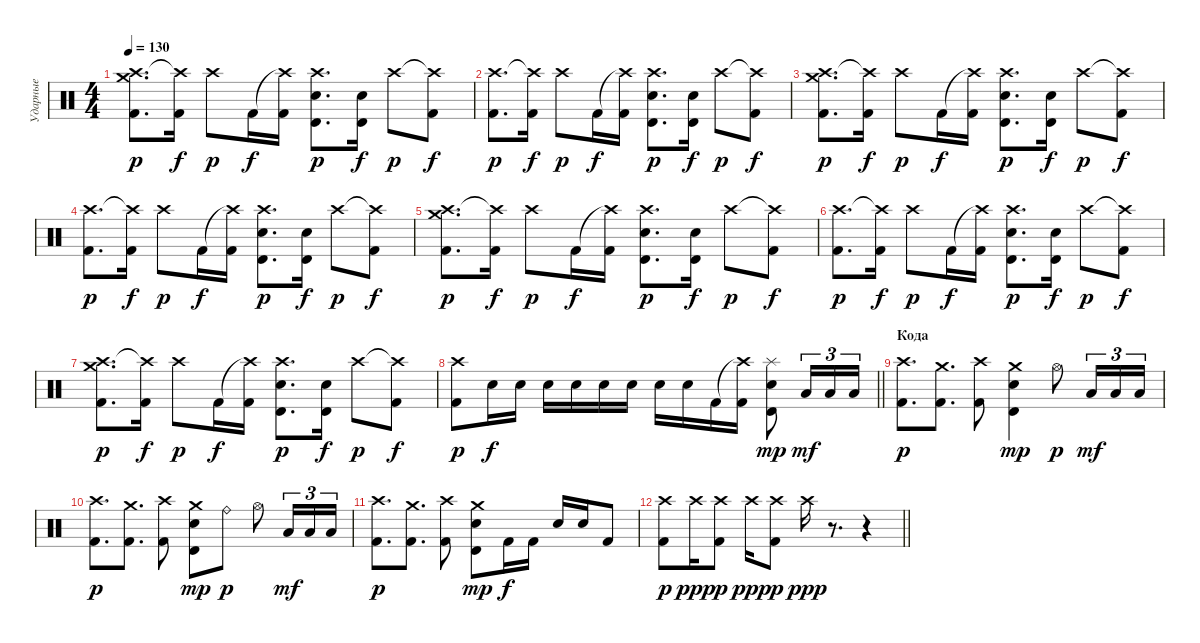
\track ("Ударные" "Ударные") {instrument percussion}
\staff {score}
\articulation defaults
\ts (4 4)
\tempo 130
\clef neutral
\ks c
("Crash high (hit)" "Crash medium (hit)" "Kick (hit) 2").8{d dy p} ("Crash high (hit)"{t} "Kick (hit) 2").16{dy f} "Crash high (hit)".8{dy p} "Kick (hit) 2".16{dy f} ("Crash high (hit)"{t} "Kick (hit) 2").16 ("Crash high (hit)" "Snare (hit) 2" "Timbale high (hit)").8{d dy p} ("Snare (hit) 2" "Timbale high (hit)").16{dy f} "Crash high (hit)".8{dy p} ("Crash high (hit)"{t} "Kick (hit) 2").8{dy f} |
("Crash high (hit)" "Kick (hit) 2").8{d dy p} ("Crash high (hit)"{t} "Kick (hit) 2").16{dy f} "Crash high (hit)".8{dy p} "Kick (hit) 2".16{dy f} ("Crash high (hit)"{t} "Kick (hit) 2").16 ("Crash high (hit)" "Snare (hit) 2" "Timbale high (hit)").8{d dy p} ("Snare (hit) 2" "Timbale high (hit)").16{dy f} "Crash high (hit)".8{dy p} ("Crash high (hit)"{t} "Kick (hit) 2").8{dy f} |
("Crash high (hit)" "Crash medium (hit)" "Kick (hit) 2").8{d dy p} ("Crash high (hit)"{t} "Kick (hit) 2").16{dy f} "Crash high (hit)".8{dy p} "Kick (hit) 2".16{dy f} ("Crash high (hit)"{t} "Kick (hit) 2").16 ("Crash high (hit)" "Snare (hit) 2" "Timbale high (hit)").8{d dy p} ("Snare (hit) 2" "Timbale high (hit)").16{dy f} "Crash high (hit)".8{dy p} ("Crash high (hit)"{t} "Kick (hit) 2").8{dy f} |
("Crash high (hit)" "Kick (hit) 2").8{d dy p} ("Crash high (hit)"{t} "Kick (hit) 2").16{dy f} "Crash high (hit)".8{dy p} "Kick (hit) 2".16{dy f} ("Crash high (hit)"{t} "Kick (hit) 2").16 ("Crash high (hit)" "Snare (hit) 2" "Timbale high (hit)").8{d dy p} ("Snare (hit) 2" "Timbale high (hit)").16{dy f} "Crash high (hit)".8{dy p} ("Crash high (hit)"{t} "Kick (hit) 2").8{dy f} |
("Crash high (hit)" "Crash medium (hit)" "Kick (hit) 2").8{d dy p} ("Crash high (hit)"{t} "Kick (hit) 2").16{dy f} "Crash high (hit)".8{dy p} "Kick (hit) 2".16{dy f} ("Crash high (hit)"{t} "Kick (hit) 2").16 ("Crash high (hit)" "Snare (hit) 2" "Timbale high (hit)").8{d dy p} ("Snare (hit) 2" "Timbale high (hit)").16{dy f} "Crash high (hit)".8{dy p} ("Crash high (hit)"{t} "Kick (hit) 2").8{dy f} |
("Crash high (hit)" "Kick (hit) 2").8{d dy p} ("Crash high (hit)"{t} "Kick (hit) 2").16{dy f} "Crash high (hit)".8{dy p} "Kick (hit) 2".16{dy f} ("Crash high (hit)"{t} "Kick (hit) 2").16 ("Crash high (hit)" "Snare (hit) 2" "Timbale high (hit)").8{d dy p} ("Snare (hit) 2" "Timbale high (hit)").16{dy f} "Crash high (hit)".8{dy p} ("Crash high (hit)"{t} "Kick (hit) 2").8{dy f} |
("Crash high (hit)" "Crash medium (hit)" "Kick (hit) 2").8{d dy p} ("Crash high (hit)"{t} "Kick (hit) 2").16{dy f} "Crash high (hit)".8{dy p} "Kick (hit) 2".16{dy f} ("Crash high (hit)"{t} "Kick (hit) 2").16 ("Crash high (hit)" "Snare (hit) 2" "Timbale high (hit)").8{d dy p} ("Snare (hit) 2" "Timbale high (hit)").16{dy f} "Crash high (hit)".8{dy p} ("Crash high (hit)"{t} "Kick (hit) 2").8{dy f} |
\barLineRight lightlight
("Crash high (hit)" "Kick (hit) 2").8{dy p} "Snare (hit) 2".16{dy f} "Snare (hit) 2".16 "Snare (hit) 2".16 "Snare (hit) 2".16 "Snare (hit) 2".16 "Snare (hit) 2".16 "Snare (hit) 2".16 "Snare (hit) 2".16 "Kick (hit) 2".16 ("Crash high (hit)"{t} "Kick (hit) 2").16 ("Splash (hit)" "Snare (hit) 2" "Timbale high (hit)").8{dy mp} "Low Floor Tom (hit)".16{tu (3 2) dy mf} "Low Floor Tom (hit)".16{tu (3 2)} "Low Floor Tom (hit)".16{tu (3 2)} |
\section ("" "Кода")
("Crash high (hit)" "Kick (hit) 2").8{d dy p} ("Crash medium (hit)" "Kick (hit) 2").8{d} ("Crash high (hit)" "Kick (hit) 2").8 ("Crash medium (hit)" "Snare (hit) 2" "Timbale high (hit)").4{dy mp} "Hi-Hat (open)".8{dy p} "Low Floor Tom (hit)".16{tu (3 2) dy mf} "Low Floor Tom (hit)".16{tu (3 2)} "Low Floor Tom (hit)".16{tu (3 2)} |
("Crash high (hit)" "Kick (hit) 2").8{d dy p} ("Crash medium (hit)" "Kick (hit) 2").8{d} ("Crash high (hit)" "Kick (hit) 2").8 ("Crash medium (hit)" "Snare (hit) 2" "Timbale high (hit)").8{dy mp} "Ride (bell)".8{dy p} "Hi-Hat (open)".8 "Low Floor Tom (hit)".16{tu (3 2) dy mf} "Low Floor Tom (hit)".16{tu (3 2)} "Low Floor Tom (hit)".16{tu (3 2)} |
("Crash high (hit)" "Kick (hit) 2").8{d dy p} ("Crash medium (hit)" "Kick (hit) 2").8{d} ("Crash high (hit)" "Kick (hit) 2").8 ("Crash medium (hit)" "Snare (hit) 2" "Timbale high (hit)").8{dy mp} "Kick (hit) 2".16{dy f} "Kick (hit) 2".16 "Snare (hit) 2".16 "Snare (hit) 2".16 "Kick (hit) 2".8 |
\barLineRight lightlight
("Crash high (hit)" "Kick (hit) 2").8{dy p} "Crash high (hit)".16{dy ppp} ("Crash high (hit)" "Kick (hit) 2").8{dy p} "Crash high (hit)".16{dy ppp} ("Crash high (hit)" "Kick (hit) 2").8{dy p} "Crash high (hit)".16{dy ppp} r.8{d} r.4
